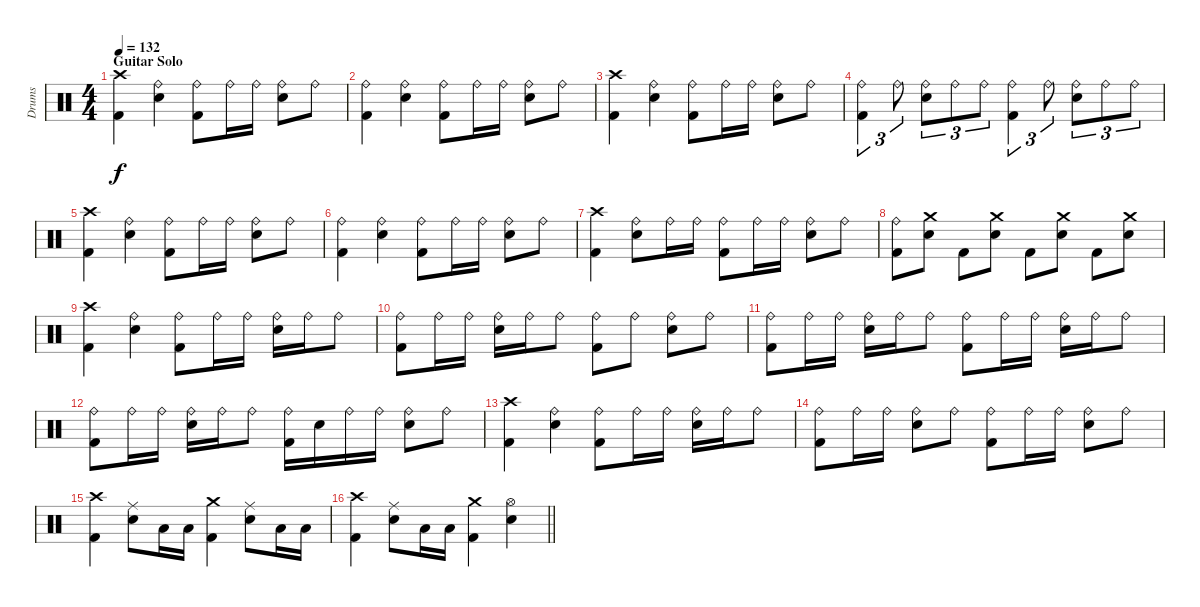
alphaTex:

\track ("Drums" "Drums") {instrument percussion}
\staff {score}
\articulation defaults
\ts (4 4)
\section ("" "Guitar Solo")
\tempo 132
\clef neutral
\ks c
("Crash high (hit)" "Kick (hit) 2").4{dy f} ("Ride (bell)" "Snare (hit) 2").4 ("Ride (bell)" "Kick (hit) 2").8 "Ride (bell)".16 "Ride (bell)".16 ("Ride (bell)" "Snare (hit) 2").8 "Ride (bell)".8 |
("Ride (bell)" "Kick (hit) 2").4 ("Ride (bell)" "Snare (hit) 2").4 ("Ride (bell)" "Kick (hit) 2").8 "Ride (bell)".16 "Ride (bell)".16 ("Ride (bell)" "Snare (hit) 2").8 "Ride (bell)".8 |
("Crash high (hit)" "Kick (hit) 2").4 ("Ride (bell)" "Snare (hit) 2").4 ("Ride (bell)" "Kick (hit) 2").8 "Ride (bell)".16 "Ride (bell)".16 ("Ride (bell)" "Snare (hit) 2").8 "Ride (bell)".8 |
("Ride (bell)" "Kick (hit) 2").4{tu (3 2)} "Ride (bell)".8{tu (3 2)} ("Ride (bell)" "Snare (hit) 2").8{tu (3 2)} "Ride (bell)".8{tu (3 2)} "Ride (bell)".8{tu (3 2)} ("Ride (bell)" "Kick (hit) 2").4{tu (3 2)} "Ride (bell)".8{tu (3 2)} ("Ride (bell)" "Snare (hit) 2").8{tu (3 2)} "Ride (bell)".8{tu (3 2)} "Ride (bell)".8{tu (3 2)} |
("Crash high (hit)" "Kick (hit) 2").4 ("Ride (bell)" "Snare (hit) 2").4 ("Ride (bell)" "Kick (hit) 2").8 "Ride (bell)".16 "Ride (bell)".16 ("Ride (bell)" "Snare (hit) 2").8 "Ride (bell)".8 |
("Ride (bell)" "Kick (hit) 2").4 ("Ride (bell)" "Snare (hit) 2").4 ("Ride (bell)" "Kick (hit) 2").8 "Ride (bell)".16 "Ride (bell)".16 ("Ride (bell)" "Snare (hit) 2").8 "Ride (bell)".8 |
("Crash high (hit)" "Kick (hit) 2").4 ("Ride (bell)" "Snare (hit) 2").8 "Ride (bell)".16 "Ride (bell)".16 ("Ride (bell)" "Kick (hit) 2").8 "Ride (bell)".16 "Ride (bell)".16 ("Ride (bell)" "Snare (hit) 2").8 "Ride (bell)".8 |
("Ride (bell)" "Kick (hit) 2").8 ("Crash medium (hit)" "Snare (hit) 2").8 "Kick (hit) 2".8 ("Crash medium (hit)" "Snare (hit) 2").8 "Kick (hit) 2".8 ("Crash medium (hit)" "Snare (hit) 2").8 "Kick (hit) 2".8 ("Crash medium (hit)" "Snare (hit) 2").8 |
("Crash high (hit)" "Kick (hit) 2").4 ("Ride (bell)" "Snare (hit) 2").4 ("Ride (bell)" "Kick (hit) 2").8 "Ride (bell)".16 "Ride (bell)".16 ("Ride (bell)" "Snare (hit) 2").16 "Ride (bell)".16 "Ride (bell)".8 |
("Ride (bell)" "Kick (hit) 2").8 "Ride (bell)".16 "Ride (bell)".16 ("Ride (bell)" "Snare (hit) 2").16 "Ride (bell)".16 "Ride (bell)".8 ("Ride (bell)" "Kick (hit) 2").8 "Ride (bell)".8 ("Ride (bell)" "Snare (hit) 2").8 "Ride (bell)".8 |
("Ride (bell)" "Kick (hit) 2").8 "Ride (bell)".16 "Ride (bell)".16 ("Ride (bell)" "Snare (hit) 2").16 "Ride (bell)".16 "Ride (bell)".8 ("Ride (bell)" "Kick (hit) 2").8 "Ride (bell)".16 "Ride (bell)".16 ("Ride (bell)" "Snare (hit) 2").16 "Ride (bell)".16 "Ride (bell)".8 |
("Ride (bell)" "Kick (hit) 2").8 "Ride (bell)".16 "Ride (bell)".16 ("Ride (bell)" "Snare (hit) 2").16 "Ride (bell)".16 "Ride (bell)".8 ("Ride (bell)" "Kick (hit) 2").16 "Snare (hit) 2".16 "Ride (bell)".16 "Ride (bell)".16 ("Ride (bell)" "Snare (hit) 2").8 "Ride (bell)".8 |
("Crash high (hit)" "Kick (hit) 2").4 ("Ride (bell)" "Snare (hit) 2").4 ("Ride (bell)" "Kick (hit) 2").8 "Ride (bell)".16 "Ride (bell)".16 ("Ride (bell)" "Snare (hit) 2").16 "Ride (bell)".16 "Ride (bell)".8 |
("Ride (bell)" "Kick (hit) 2").8 "Ride (bell)".16 "Ride (bell)".16 ("Ride (bell)" "Snare (hit) 2").8 "Ride (bell)".8 ("Ride (bell)" "Kick (hit) 2").8 "Ride (bell)".16 "Ride (bell)".16 ("Ride (bell)" "Snare (hit) 2").8 "Ride (bell)".8 |
("Crash high (hit)" "Kick (hit) 2").4 ("Ride (middle)" "Snare (hit) 2").8 "Low Tom (hit)".16 "Low Tom (hit)".16 ("Crash medium (hit)" "Kick (hit) 2").4 ("Ride (middle)" "Snare (hit) 2").8 "Low Tom (hit)".16 "Low Tom (hit)".16 |
\barLineRight lightlight
("Crash high (hit)" "Kick (hit) 2").4 ("Ride (middle)" "Snare (hit) 2").8 "Low Tom (hit)".16 "Low Tom (hit)".16 ("Crash medium (hit)" "Kick (hit) 2").4 ("Hi-Hat (open)" "Snare (hit) 2").4
